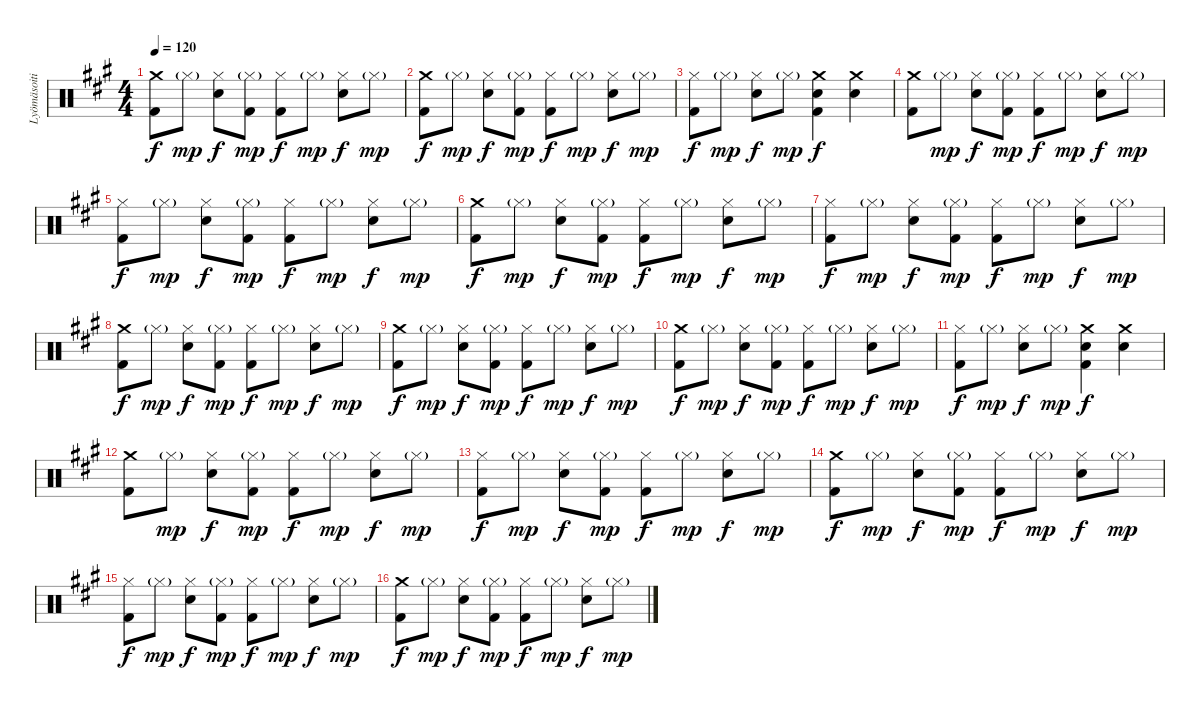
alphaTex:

\track ("Lyömäsoitin" "Lyömäsoiti") {instrument percussion}
\staff {score}
\articulation defaults
\ts (4 4)
\tempo 120
\clef neutral
\ks f#minor
("Crash medium (hit)" "Kick (hit) 2").8{dy f} "Hi-Hat (closed)"{g}.8{dy mp} ("Hi-Hat (closed)" "Snare (hit) 2").8{dy f} ("Hi-Hat (closed)"{g} "Kick (hit) 2").8{dy mp} ("Hi-Hat (closed)" "Kick (hit) 2").8{dy f} "Hi-Hat (closed)"{g}.8{dy mp} ("Hi-Hat (closed)" "Snare (hit) 2").8{dy f} "Hi-Hat (closed)"{g}.8{dy mp} |
("Kick (hit) 2" "Crash medium (hit)").8{dy f} "Hi-Hat (closed)"{g}.8{dy mp} ("Hi-Hat (closed)" "Snare (hit) 2").8{dy f} ("Hi-Hat (closed)"{g} "Kick (hit) 2").8{dy mp} ("Hi-Hat (closed)" "Kick (hit) 2").8{dy f} "Hi-Hat (closed)"{g}.8{dy mp} ("Hi-Hat (closed)" "Snare (hit) 2").8{dy f} "Hi-Hat (closed)"{g}.8{dy mp} |
("Kick (hit) 2" "Hi-Hat (closed)").8{dy f} "Hi-Hat (closed)"{g}.8{dy mp} ("Hi-Hat (closed)" "Snare (hit) 2").8{dy f} "Hi-Hat (closed)"{g}.8{dy mp} ("Snare (hit) 2" "Crash medium (hit)" "Kick (hit) 2").4{dy f} ("Snare (hit) 2" "Crash medium (hit)").4 |
("Kick (hit) 2" "Crash medium (hit)").8 "Hi-Hat (closed)"{g}.8{dy mp} ("Hi-Hat (closed)" "Snare (hit) 2").8{dy f} ("Hi-Hat (closed)"{g} "Kick (hit) 2").8{dy mp} ("Hi-Hat (closed)" "Kick (hit) 2").8{dy f} "Hi-Hat (closed)"{g}.8{dy mp} ("Hi-Hat (closed)" "Snare (hit) 2").8{dy f} "Hi-Hat (closed)"{g}.8{dy mp} |
("Hi-Hat (closed)" "Kick (hit) 2").8{dy f} "Hi-Hat (closed)"{g}.8{dy mp} ("Hi-Hat (closed)" "Snare (hit) 2").8{dy f} ("Hi-Hat (closed)"{g} "Kick (hit) 2").8{dy mp} ("Hi-Hat (closed)" "Kick (hit) 2").8{dy f} "Hi-Hat (closed)"{g}.8{dy mp} ("Hi-Hat (closed)" "Snare (hit) 2").8{dy f} "Hi-Hat (closed)"{g}.8{dy mp} |
("Kick (hit) 2" "Crash medium (hit)").8{dy f} "Hi-Hat (closed)"{g}.8{dy mp} ("Snare (hit) 2" "Hi-Hat (closed)").8{dy f} ("Hi-Hat (closed)"{g} "Kick (hit) 2").8{dy mp} ("Hi-Hat (closed)" "Kick (hit) 2").8{dy f} "Hi-Hat (closed)"{g}.8{dy mp} ("Hi-Hat (closed)" "Snare (hit) 2").8{dy f} "Hi-Hat (closed)"{g}.8{dy mp} |
("Hi-Hat (closed)" "Kick (hit) 2").8{dy f} "Hi-Hat (closed)"{g}.8{dy mp} ("Hi-Hat (closed)" "Snare (hit) 2").8{dy f} ("Hi-Hat (closed)"{g} "Kick (hit) 2").8{dy mp} ("Hi-Hat (closed)" "Kick (hit) 2").8{dy f} "Hi-Hat (closed)"{g}.8{dy mp} ("Hi-Hat (closed)" "Snare (hit) 2").8{dy f} "Hi-Hat (closed)"{g}.8{dy mp} |
("Kick (hit) 2" "Crash medium (hit)").8{dy f} "Hi-Hat (closed)"{g}.8{dy mp} ("Snare (hit) 2" "Hi-Hat (closed)").8{dy f} ("Hi-Hat (closed)"{g} "Kick (hit) 2").8{dy mp} ("Hi-Hat (closed)" "Kick (hit) 2").8{dy f} "Hi-Hat (closed)"{g}.8{dy mp} ("Hi-Hat (closed)" "Snare (hit) 2").8{dy f} "Hi-Hat (closed)"{g}.8{dy mp} |
("Crash medium (hit)" "Kick (hit) 2").8{dy f} "Hi-Hat (closed)"{g}.8{dy mp} ("Hi-Hat (closed)" "Snare (hit) 2").8{dy f} ("Hi-Hat (closed)"{g} "Kick (hit) 2").8{dy mp} ("Hi-Hat (closed)" "Kick (hit) 2").8{dy f} "Hi-Hat (closed)"{g}.8{dy mp} ("Hi-Hat (closed)" "Snare (hit) 2").8{dy f} "Hi-Hat (closed)"{g}.8{dy mp} |
("Kick (hit) 2" "Crash medium (hit)").8{dy f} "Hi-Hat (closed)"{g}.8{dy mp} ("Hi-Hat (closed)" "Snare (hit) 2").8{dy f} ("Hi-Hat (closed)"{g} "Kick (hit) 2").8{dy mp} ("Hi-Hat (closed)" "Kick (hit) 2").8{dy f} "Hi-Hat (closed)"{g}.8{dy mp} ("Hi-Hat (closed)" "Snare (hit) 2").8{dy f} "Hi-Hat (closed)"{g}.8{dy mp} |
("Kick (hit) 2" "Hi-Hat (closed)").8{dy f} "Hi-Hat (closed)"{g}.8{dy mp} ("Hi-Hat (closed)" "Snare (hit) 2").8{dy f} "Hi-Hat (closed)"{g}.8{dy mp} ("Snare (hit) 2" "Crash medium (hit)" "Kick (hit) 2").4{dy f} ("Snare (hit) 2" "Crash medium (hit)").4 |
("Kick (hit) 2" "Crash medium (hit)").8 "Hi-Hat (closed)"{g}.8{dy mp} ("Hi-Hat (closed)" "Snare (hit) 2").8{dy f} ("Hi-Hat (closed)"{g} "Kick (hit) 2").8{dy mp} ("Hi-Hat (closed)" "Kick (hit) 2").8{dy f} "Hi-Hat (closed)"{g}.8{dy mp} ("Hi-Hat (closed)" "Snare (hit) 2").8{dy f} "Hi-Hat (closed)"{g}.8{dy mp} |
("Hi-Hat (closed)" "Kick (hit) 2").8{dy f} "Hi-Hat (closed)"{g}.8{dy mp} ("Hi-Hat (closed)" "Snare (hit) 2").8{dy f} ("Hi-Hat (closed)"{g} "Kick (hit) 2").8{dy mp} ("Hi-Hat (closed)" "Kick (hit) 2").8{dy f} "Hi-Hat (closed)"{g}.8{dy mp} ("Hi-Hat (closed)" "Snare (hit) 2").8{dy f} "Hi-Hat (closed)"{g}.8{dy mp} |
("Kick (hit) 2" "Crash medium (hit)").8{dy f} "Hi-Hat (closed)"{g}.8{dy mp} ("Snare (hit) 2" "Hi-Hat (closed)").8{dy f} ("Hi-Hat (closed)"{g} "Kick (hit) 2").8{dy mp} ("Hi-Hat (closed)" "Kick (hit) 2").8{dy f} "Hi-Hat (closed)"{g}.8{dy mp} ("Hi-Hat (closed)" "Snare (hit) 2").8{dy f} "Hi-Hat (closed)"{g}.8{dy mp} |
("Hi-Hat (closed)" "Kick (hit) 2").8{dy f} "Hi-Hat (closed)"{g}.8{dy mp} ("Hi-Hat (closed)" "Snare (hit) 2").8{dy f} ("Hi-Hat (closed)"{g} "Kick (hit) 2").8{dy mp} ("Hi-Hat (closed)" "Kick (hit) 2").8{dy f} "Hi-Hat (closed)"{g}.8{dy mp} ("Hi-Hat (closed)" "Snare (hit) 2").8{dy f} "Hi-Hat (closed)"{g}.8{dy mp} |
("Kick (hit) 2" "Crash medium (hit)").8{dy f} "Hi-Hat (closed)"{g}.8{dy mp} ("Snare (hit) 2" "Hi-Hat (closed)").8{dy f} ("Hi-Hat (closed)"{g} "Kick (hit) 2").8{dy mp} ("Hi-Hat (closed)" "Kick (hit) 2").8{dy f} "Hi-Hat (closed)"{g}.8{dy mp} ("Hi-Hat (closed)" "Snare (hit) 2").8{dy f} "Hi-Hat (closed)"{g}.8{dy mp}
